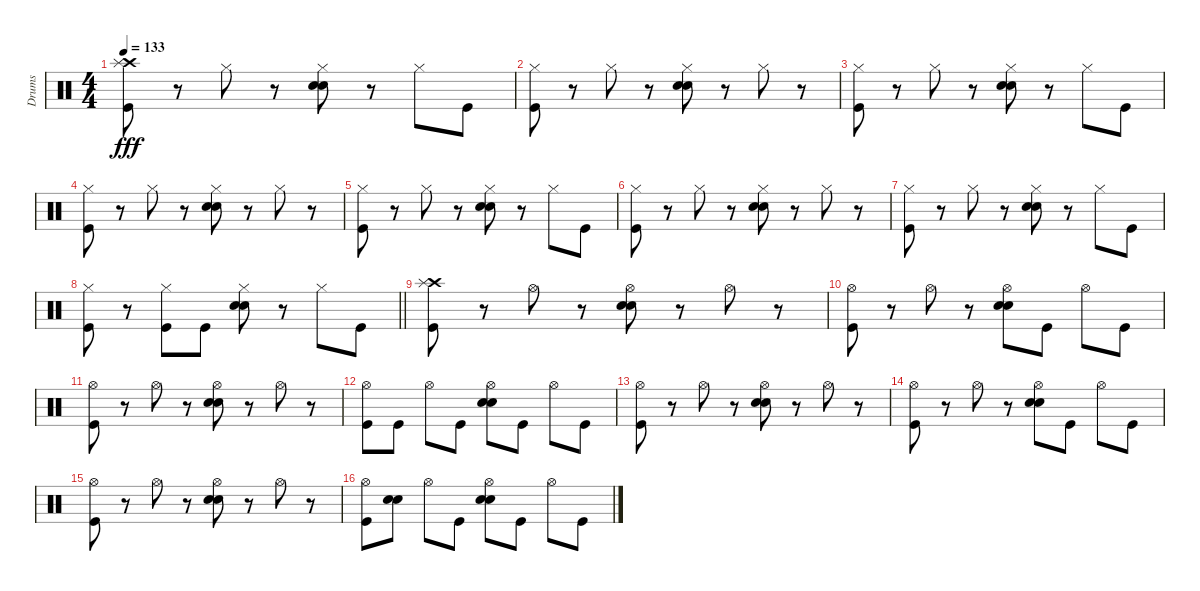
\track ("Drums" "Drums") {instrument percussion}
\staff {score}
\articulation defaults
\ts (4 4)
\tempo 133
\clef neutral
\ks c
("Crash high (hit)" "Splash (hit)" "Kick (hit)").8{dy fff} r.8 "Hi-Hat (closed)".8 r.8 ("Hi-Hat (closed)" "Electric Snare (hit)" "Snare (hit) 2").8 r.8 "Hi-Hat (closed)".8 "Kick (hit)".8 |
("Hi-Hat (closed)" "Kick (hit)").8 r.8 "Hi-Hat (closed)".8 r.8 ("Hi-Hat (closed)" "Electric Snare (hit)" "Snare (hit) 2").8 r.8 "Hi-Hat (closed)".8 r.8 |
("Hi-Hat (closed)" "Kick (hit)").8 r.8 "Hi-Hat (closed)".8 r.8 ("Hi-Hat (closed)" "Electric Snare (hit)" "Snare (hit) 2").8 r.8 "Hi-Hat (closed)".8 "Kick (hit)".8 |
("Hi-Hat (closed)" "Kick (hit)").8 r.8 "Hi-Hat (closed)".8 r.8 ("Hi-Hat (closed)" "Electric Snare (hit)" "Snare (hit) 2").8 r.8 "Hi-Hat (closed)".8 r.8 |
("Hi-Hat (closed)" "Kick (hit)").8 r.8 "Hi-Hat (closed)".8 r.8 ("Hi-Hat (closed)" "Electric Snare (hit)" "Snare (hit) 2").8 r.8 "Hi-Hat (closed)".8 "Kick (hit)".8 |
("Hi-Hat (closed)" "Kick (hit)").8 r.8 "Hi-Hat (closed)".8 r.8 ("Hi-Hat (closed)" "Electric Snare (hit)" "Snare (hit) 2").8 r.8 "Hi-Hat (closed)".8 r.8 |
("Hi-Hat (closed)" "Kick (hit)").8 r.8 "Hi-Hat (closed)".8 r.8 ("Hi-Hat (closed)" "Electric Snare (hit)" "Snare (hit) 2").8 r.8 "Hi-Hat (closed)".8 "Kick (hit)".8 |
\barLineRight lightlight
("Hi-Hat (closed)" "Kick (hit)").8 r.8 ("Hi-Hat (closed)" "Kick (hit)").8 "Kick (hit)".8 ("Hi-Hat (closed)" "Electric Snare (hit)" "Snare (hit) 2").8 r.8 "Hi-Hat (closed)".8 "Kick (hit)".8 |
("Crash high (hit)" "Splash (hit)" "Kick (hit)").8 r.8 "Hi-Hat (open)".8 r.8 ("Hi-Hat (open)" "Electric Snare (hit)" "Snare (hit) 2").8 r.8 "Hi-Hat (open)".8 r.8 |
("Hi-Hat (open)" "Kick (hit)").8 r.8 "Hi-Hat (open)".8 r.8 ("Hi-Hat (open)" "Electric Snare (hit)" "Snare (hit) 2").8 "Kick (hit)".8 "Hi-Hat (open)".8 "Kick (hit)".8 |
("Hi-Hat (open)" "Kick (hit)").8 r.8 "Hi-Hat (open)".8 r.8 ("Hi-Hat (open)" "Electric Snare (hit)" "Snare (hit) 2").8 r.8 "Hi-Hat (open)".8 r.8 |
("Hi-Hat (open)" "Kick (hit)").8 "Kick (hit)".8 "Hi-Hat (open)".8 "Kick (hit)".8 ("Hi-Hat (open)" "Electric Snare (hit)" "Snare (hit) 2").8 "Kick (hit)".8 "Hi-Hat (open)".8 "Kick (hit)".8 |
("Hi-Hat (open)" "Kick (hit)").8 r.8 "Hi-Hat (open)".8 r.8 ("Hi-Hat (open)" "Electric Snare (hit)" "Snare (hit) 2").8 r.8 "Hi-Hat (open)".8 r.8 |
("Hi-Hat (open)" "Kick (hit)").8 r.8 "Hi-Hat (open)".8 r.8 ("Hi-Hat (open)" "Electric Snare (hit)" "Snare (hit) 2").8 "Kick (hit)".8 "Hi-Hat (open)".8 "Kick (hit)".8 |
("Hi-Hat (open)" "Kick (hit)").8 r.8 "Hi-Hat (open)".8 r.8 ("Hi-Hat (open)" "Electric Snare (hit)" "Snare (hit) 2").8 r.8 "Hi-Hat (open)".8 r.8 |
("Hi-Hat (open)" "Kick (hit)").8 ("Electric Snare (hit)" "Snare (hit) 2").8 "Hi-Hat (open)".8 "Kick (hit)".8 ("Hi-Hat (open)" "Electric Snare (hit)" "Snare (hit) 2").8 "Kick (hit)".8 "Hi-Hat (open)".8 "Kick (hit)".8
